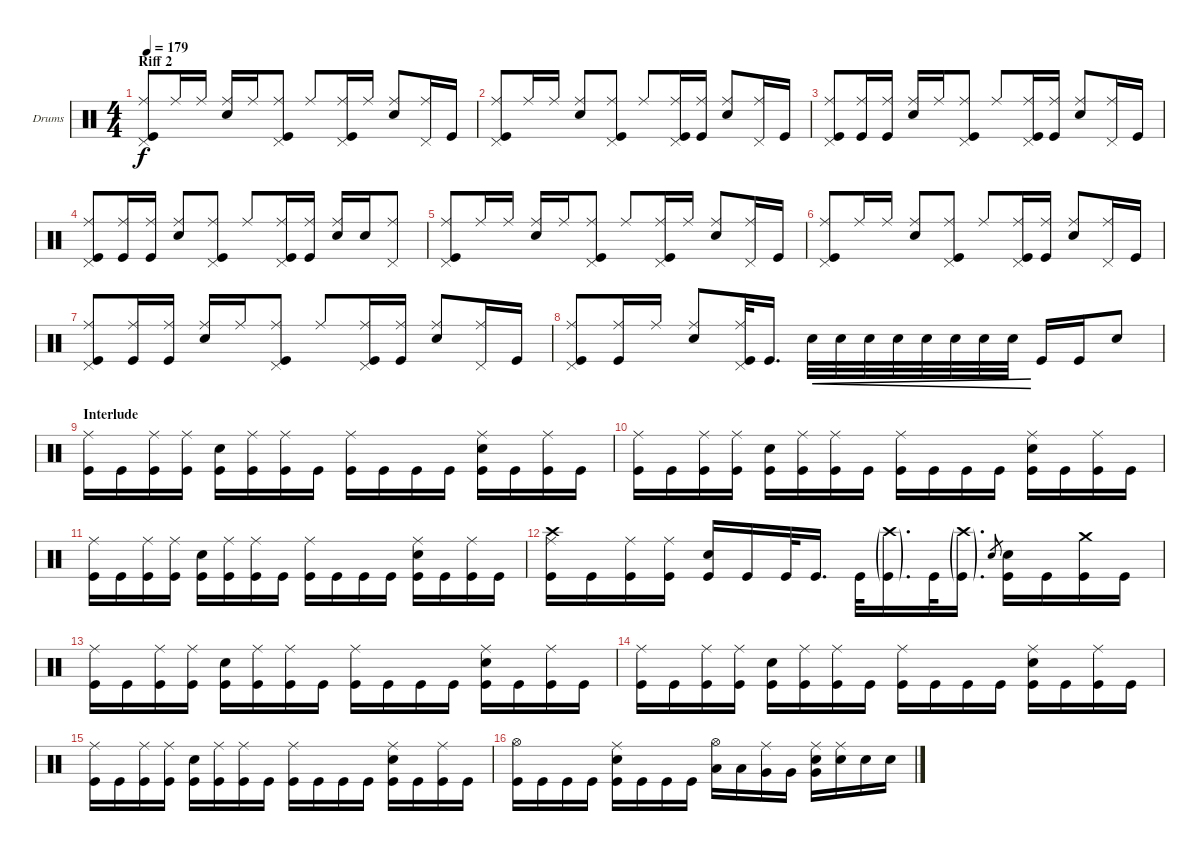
\bracketExtendMode groupsimilarinstruments
\firstSystemTrackNameOrientation horizontal
\otherSystemsTrackNameOrientation horizontal
\track ("Drumkit" "Drums") {multiBarRest instrument percussion}
\staff {score}
\articulation defaults
\ts (4 4)
\section ("" "Riff 2")
\tempo 179
\clef neutral
\ks c
("Pedal Hi-Hat (hit)" "Ride (middle)" "Kick (hit)").8{dy f} "Ride (middle)".16 "Ride (middle)".16 ("Ride (middle)" "Snare (hit) 2").16 "Ride (middle)".16 ("Pedal Hi-Hat (hit)" "Ride (middle)" "Kick (hit)").8 "Ride (middle)".8 ("Pedal Hi-Hat (hit)" "Ride (middle)" "Kick (hit)").16 "Ride (middle)".16 ("Ride (middle)" "Snare (hit) 2").8 ("Pedal Hi-Hat (hit)" "Ride (middle)").16 "Kick (hit)".16 |
("Pedal Hi-Hat (hit)" "Ride (middle)" "Kick (hit)").8 "Ride (middle)".16 "Ride (middle)".16 ("Ride (middle)" "Snare (hit) 2").8 ("Pedal Hi-Hat (hit)" "Ride (middle)" "Kick (hit)").8 "Ride (middle)".8 ("Pedal Hi-Hat (hit)" "Ride (middle)" "Kick (hit)").16 ("Ride (middle)" "Kick (hit)").16 ("Ride (middle)" "Snare (hit) 2").8 ("Pedal Hi-Hat (hit)" "Ride (middle)").16 "Kick (hit)".16 |
("Pedal Hi-Hat (hit)" "Ride (middle)" "Kick (hit)").8 ("Ride (middle)" "Kick (hit)").16 ("Ride (middle)" "Kick (hit)").16 ("Ride (middle)" "Snare (hit) 2").16 "Ride (middle)".16 ("Pedal Hi-Hat (hit)" "Ride (middle)" "Kick (hit)").8 "Ride (middle)".8 ("Pedal Hi-Hat (hit)" "Ride (middle)" "Kick (hit)").16 ("Ride (middle)" "Kick (hit)").16 ("Ride (middle)" "Snare (hit) 2").8 ("Pedal Hi-Hat (hit)" "Ride (middle)").16 "Kick (hit)".16 |
("Pedal Hi-Hat (hit)" "Ride (middle)" "Kick (hit)").8 ("Ride (middle)" "Kick (hit)").16 ("Ride (middle)" "Kick (hit)").16 ("Ride (middle)" "Snare (hit) 2").8 ("Pedal Hi-Hat (hit)" "Ride (middle)" "Kick (hit)").8 "Ride (middle)".8 ("Pedal Hi-Hat (hit)" "Ride (middle)" "Kick (hit)").16 ("Ride (middle)" "Kick (hit)").16 ("Ride (middle)" "Snare (hit) 2").16 "Snare (hit) 2".16 ("Pedal Hi-Hat (hit)" "Ride (middle)").8 |
("Pedal Hi-Hat (hit)" "Ride (middle)" "Kick (hit)").8 "Ride (middle)".16 "Ride (middle)".16 ("Ride (middle)" "Snare (hit) 2").16 "Ride (middle)".16 ("Pedal Hi-Hat (hit)" "Ride (middle)" "Kick (hit)").8 "Ride (middle)".8 ("Pedal Hi-Hat (hit)" "Ride (middle)" "Kick (hit)").16 "Ride (middle)".16 ("Ride (middle)" "Snare (hit) 2").8 ("Pedal Hi-Hat (hit)" "Ride (middle)").16 "Kick (hit)".16 |
("Pedal Hi-Hat (hit)" "Ride (middle)" "Kick (hit)").8 "Ride (middle)".16 "Ride (middle)".16 ("Ride (middle)" "Snare (hit) 2").8 ("Pedal Hi-Hat (hit)" "Ride (middle)" "Kick (hit)").8 "Ride (middle)".8 ("Pedal Hi-Hat (hit)" "Ride (middle)" "Kick (hit)").16 ("Ride (middle)" "Kick (hit)").16 ("Ride (middle)" "Snare (hit) 2").8 ("Pedal Hi-Hat (hit)" "Ride (middle)").16 "Kick (hit)".16 |
("Pedal Hi-Hat (hit)" "Ride (middle)" "Kick (hit)").8 ("Ride (middle)" "Kick (hit)").16 ("Ride (middle)" "Kick (hit)").16 ("Ride (middle)" "Snare (hit) 2").16 "Ride (middle)".16 ("Pedal Hi-Hat (hit)" "Ride (middle)" "Kick (hit)").8 "Ride (middle)".8 ("Pedal Hi-Hat (hit)" "Ride (middle)" "Kick (hit)").16 ("Ride (middle)" "Kick (hit)").16 ("Ride (middle)" "Snare (hit) 2").8 ("Pedal Hi-Hat (hit)" "Ride (middle)").16 "Kick (hit)".16 |
("Pedal Hi-Hat (hit)" "Ride (middle)" "Kick (hit)").8 ("Ride (middle)" "Kick (hit)").16 "Ride (middle)".16 ("Ride (middle)" "Snare (hit) 2").8 ("Pedal Hi-Hat (hit)" "Ride (middle)" "Kick (hit)").32 "Kick (hit)".16{d} "Snare (hit) 2".32{cre} "Snare (hit) 2".32{cre} "Snare (hit) 2".32{cre} "Snare (hit) 2".32{cre} "Snare (hit) 2".32{cre} "Snare (hit) 2".32{cre} "Snare (hit) 2".32{cre} "Snare (hit) 2".32{cre} "Kick (hit)".16 "Kick (hit)".16 "Snare (hit) 2".8 |
\section ("" "Interlude")
("Ride (middle)" "Kick (hit)").16 "Kick (hit)".16 ("Ride (middle)" "Kick (hit)").16 ("Ride (middle)" "Kick (hit)").16 ("Snare (hit) 2" "Kick (hit)").16 ("Ride (middle)" "Kick (hit)").16 ("Ride (middle)" "Kick (hit)").16 "Kick (hit)".16 ("Ride (middle)" "Kick (hit)").16 "Kick (hit)".16 "Kick (hit)".16 "Kick (hit)".16 ("Snare (hit) 2" "Ride (middle)" "Kick (hit)").16 "Kick (hit)".16 ("Ride (middle)" "Kick (hit)").16 "Kick (hit)".16 |
("Ride (middle)" "Kick (hit)").16 "Kick (hit)".16 ("Ride (middle)" "Kick (hit)").16 ("Ride (middle)" "Kick (hit)").16 ("Snare (hit) 2" "Kick (hit)").16 ("Ride (middle)" "Kick (hit)").16 ("Ride (middle)" "Kick (hit)").16 "Kick (hit)".16 ("Ride (middle)" "Kick (hit)").16 "Kick (hit)".16 "Kick (hit)".16 "Kick (hit)".16 ("Snare (hit) 2" "Ride (middle)" "Kick (hit)").16 "Kick (hit)".16 ("Ride (middle)" "Kick (hit)").16 "Kick (hit)".16 |
("Ride (middle)" "Kick (hit)").16 "Kick (hit)".16 ("Ride (middle)" "Kick (hit)").16 ("Ride (middle)" "Kick (hit)").16 ("Snare (hit) 2" "Kick (hit)").16 ("Ride (middle)" "Kick (hit)").16 ("Ride (middle)" "Kick (hit)").16 "Kick (hit)".16 ("Ride (middle)" "Kick (hit)").16 "Kick (hit)".16 "Kick (hit)".16 "Kick (hit)".16 ("Snare (hit) 2" "Ride (middle)" "Kick (hit)").16 "Kick (hit)".16 ("Ride (middle)" "Kick (hit)").16 "Kick (hit)".16 |
("Crash high (hit)" "Ride (middle)" "Kick (hit)").16 "Kick (hit)".16 ("Ride (middle)" "Kick (hit)").16 ("Ride (middle)" "Kick (hit)").16 ("Snare (hit) 2" "Kick (hit)").16 "Kick (hit)".16 "Kick (hit)".32 "Kick (hit)".16{d} "Kick (hit)".32 ("Crash high (hit)"{g} "Kick (hit)"{g}).16{d} "Kick (hit)".32 ("Crash high (hit)"{g} "Kick (hit)"{g}).16{d} "Snare (hit) 2".8{gr} ("Snare (hit) 2" "Kick (hit)").16 "Kick (hit)".16 ("Crash medium (hit)" "Kick (hit)").16 "Kick (hit)".16 |
("Ride (middle)" "Kick (hit)").16 "Kick (hit)".16 ("Ride (middle)" "Kick (hit)").16 ("Ride (middle)" "Kick (hit)").16 ("Snare (hit) 2" "Kick (hit)").16 ("Ride (middle)" "Kick (hit)").16 ("Ride (middle)" "Kick (hit)").16 "Kick (hit)".16 ("Ride (middle)" "Kick (hit)").16 "Kick (hit)".16 "Kick (hit)".16 "Kick (hit)".16 ("Snare (hit) 2" "Ride (middle)" "Kick (hit)").16 "Kick (hit)".16 ("Ride (middle)" "Kick (hit)").16 "Kick (hit)".16 |
("Ride (middle)" "Kick (hit)").16 "Kick (hit)".16 ("Ride (middle)" "Kick (hit)").16 ("Ride (middle)" "Kick (hit)").16 ("Snare (hit) 2" "Kick (hit)").16 ("Ride (middle)" "Kick (hit)").16 ("Ride (middle)" "Kick (hit)").16 "Kick (hit)".16 ("Ride (middle)" "Kick (hit)").16 "Kick (hit)".16 "Kick (hit)".16 "Kick (hit)".16 ("Snare (hit) 2" "Ride (middle)" "Kick (hit)").16 "Kick (hit)".16 ("Ride (middle)" "Kick (hit)").16 "Kick (hit)".16 |
("Ride (middle)" "Kick (hit)").16 "Kick (hit)".16 ("Ride (middle)" "Kick (hit)").16 ("Ride (middle)" "Kick (hit)").16 ("Snare (hit) 2" "Kick (hit)").16 ("Ride (middle)" "Kick (hit)").16 ("Ride (middle)" "Kick (hit)").16 "Kick (hit)".16 ("Ride (middle)" "Kick (hit)").16 "Kick (hit)".16 "Kick (hit)".16 "Kick (hit)".16 ("Snare (hit) 2" "Ride (middle)" "Kick (hit)").16 "Kick (hit)".16 ("Ride (middle)" "Kick (hit)").16 "Kick (hit)".16 |
("Hi-Hat (open)" "Kick (hit)").16 "Kick (hit)".16 "Kick (hit)".16 "Kick (hit)".16 ("Snare (hit) 2" "Ride (middle)" "Kick (hit)").16 "Kick (hit)".16 "Kick (hit)".16 "Kick (hit)".16 ("Hi-Hat (open)" "Low Tom (hit)").16 "Low Tom (hit)".16 ("Ride (middle)" "Very Low Tom (hit)").16 "Very Low Tom (hit)".16 ("Snare (hit) 2" "Ride (middle)" "Very Low Tom (hit)").16 ("Ride (middle)" "Snare (hit) 2").16 "Snare (hit) 2".16 "Snare (hit) 2".16
